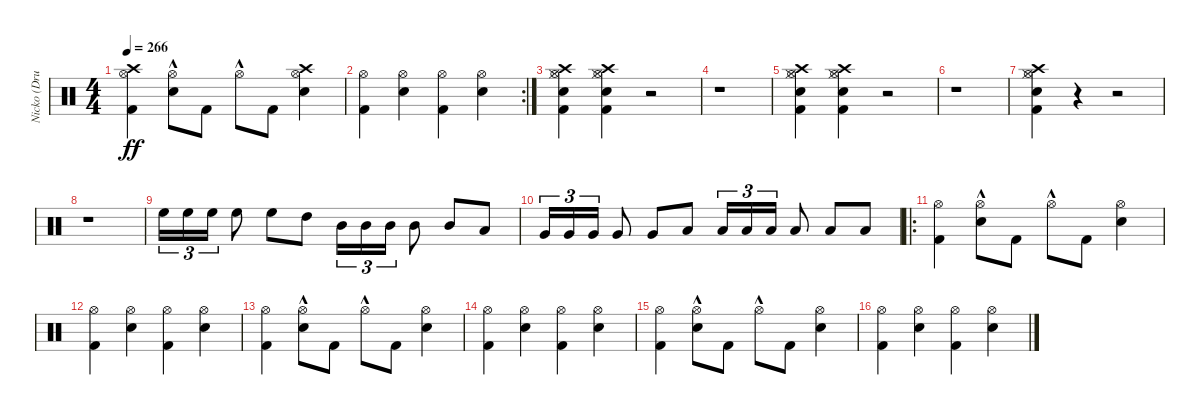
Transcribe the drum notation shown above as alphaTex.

\track ("Nicko (Drums)" "Nicko (Dru") {instrument percussion}
\staff {score}
\articulation defaults
\ts (4 4)
\tempo 266
\clef neutral
\ks c
("Kick (hit) 2" "Hi-Hat (open)" "Crash high (hit)").4{dy ff} ("Snare (hit) 2" "Hi-Hat (open)"{hac}).8 "Kick (hit) 2".8 "Hi-Hat (open)"{hac}.8 "Kick (hit) 2".8 ("Snare (hit) 2" "Hi-Hat (open)" "Crash high (hit)").4 |
\rc 2
("Kick (hit) 2" "Hi-Hat (open)").4 ("Snare (hit) 2" "Hi-Hat (open)").4 ("Kick (hit) 2" "Hi-Hat (open)").4 ("Snare (hit) 2" "Hi-Hat (open)").4 |
("Kick (hit) 2" "Snare (hit) 2" "Hi-Hat (closed)" "Hi-Hat (open)" "Crash high (hit)").4 ("Kick (hit) 2" "Snare (hit) 2" "Hi-Hat (closed)" "Hi-Hat (open)" "Crash high (hit)").4 r.2 |
r.1 |
("Kick (hit) 2" "Snare (hit) 2" "Hi-Hat (closed)" "Hi-Hat (open)" "Crash high (hit)").4 ("Kick (hit) 2" "Snare (hit) 2" "Hi-Hat (closed)" "Hi-Hat (open)" "Crash high (hit)").4 r.2 |
r.1 |
("Kick (hit) 2" "Snare (hit) 2" "Hi-Hat (closed)" "Hi-Hat (open)" "Crash high (hit)").4 r.4 r.2 |
r.1 |
"High Floor Tom (hit)".16{tu (3 2)} "High Floor Tom (hit)".16{tu (3 2)} "High Floor Tom (hit)".16{tu (3 2)} "High Floor Tom (hit)".8 "High Floor Tom (hit)".8 "High Tom (hit)".8 "Mid Tom (hit)".16{tu (3 2)} "Mid Tom (hit)".16{tu (3 2)} "Mid Tom (hit)".16{tu (3 2)} "Mid Tom (hit)".8 "Mid Tom (hit)".8 "Low Tom (hit)".8 |
"Very Low Tom (hit)".16{tu (3 2)} "Very Low Tom (hit)".16{tu (3 2)} "Very Low Tom (hit)".16{tu (3 2)} "Very Low Tom (hit)".8 "Very Low Tom (hit)".8 "Low Floor Tom (hit)".8 "Low Floor Tom (hit)".16{tu (3 2)} "Low Floor Tom (hit)".16{tu (3 2)} "Low Floor Tom (hit)".16{tu (3 2)} "Low Floor Tom (hit)".8 "Low Floor Tom (hit)".8 "Low Floor Tom (hit)".8 |
\ro
("Kick (hit) 2" "Hi-Hat (open)").4 ("Snare (hit) 2" "Hi-Hat (open)"{hac}).8 "Kick (hit) 2".8 "Hi-Hat (open)"{hac}.8 "Kick (hit) 2".8 ("Snare (hit) 2" "Hi-Hat (open)").4 |
("Kick (hit) 2" "Hi-Hat (open)").4 ("Snare (hit) 2" "Hi-Hat (open)").4 ("Kick (hit) 2" "Hi-Hat (open)").4 ("Snare (hit) 2" "Hi-Hat (open)").4 |
("Kick (hit) 2" "Hi-Hat (open)").4 ("Snare (hit) 2" "Hi-Hat (open)"{hac}).8 "Kick (hit) 2".8 "Hi-Hat (open)"{hac}.8 "Kick (hit) 2".8 ("Snare (hit) 2" "Hi-Hat (open)").4 |
("Kick (hit) 2" "Hi-Hat (open)").4 ("Snare (hit) 2" "Hi-Hat (open)").4 ("Kick (hit) 2" "Hi-Hat (open)").4 ("Snare (hit) 2" "Hi-Hat (open)").4 |
("Kick (hit) 2" "Hi-Hat (open)").4 ("Snare (hit) 2" "Hi-Hat (open)"{hac}).8 "Kick (hit) 2".8 "Hi-Hat (open)"{hac}.8 "Kick (hit) 2".8 ("Snare (hit) 2" "Hi-Hat (open)").4 |
("Kick (hit) 2" "Hi-Hat (open)").4 ("Snare (hit) 2" "Hi-Hat (open)").4 ("Kick (hit) 2" "Hi-Hat (open)").4 ("Snare (hit) 2" "Hi-Hat (open)").4
